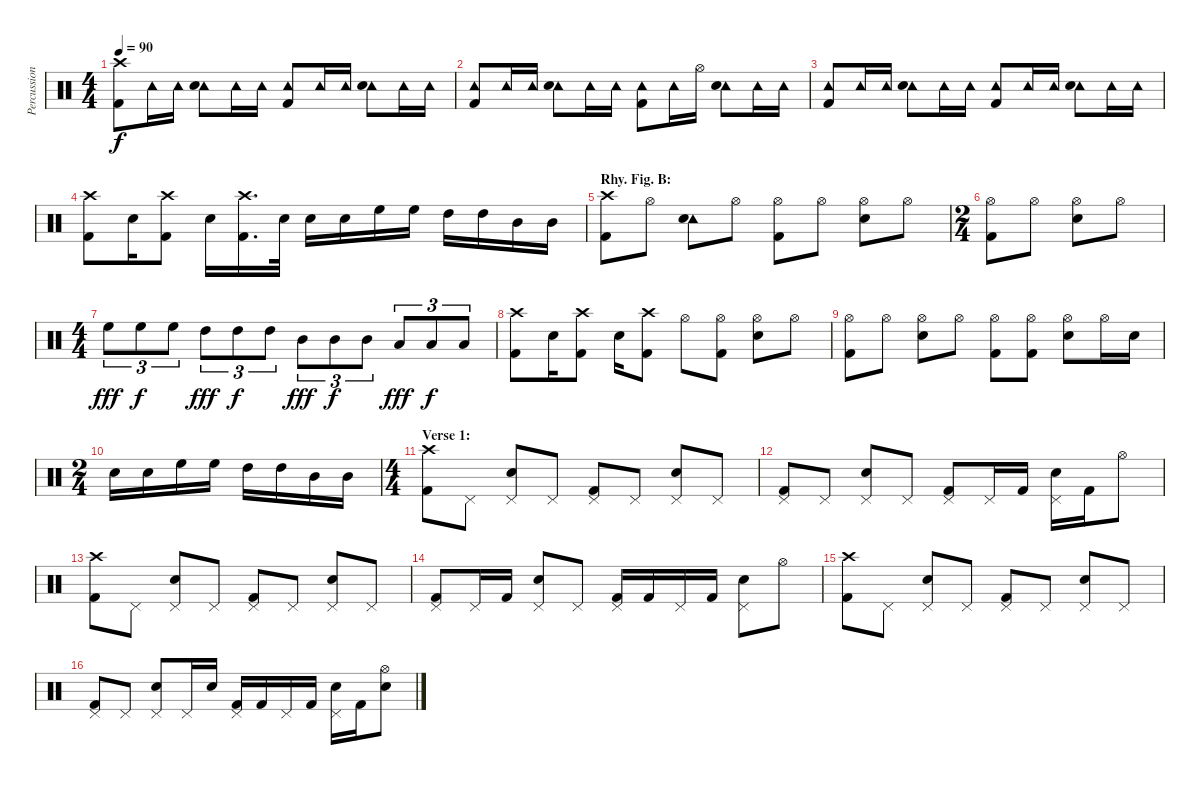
\track ("Percussion" "Percussion") {instrument percussion}
\staff {score}
\articulation defaults
\ts (4 4)
\tempo 90
\clef neutral
\ks c
("Crash high (hit)" "Kick (hit) 2").8{dy f} "Tambourine (hit)".16 "Tambourine (hit)".16 ("Tambourine (hit)" "Electric Snare (hit)").8 "Tambourine (hit)".16 "Tambourine (hit)".16 ("Tambourine (hit)" "Kick (hit) 2").8 "Tambourine (hit)".16 "Tambourine (hit)".16 ("Tambourine (hit)" "Electric Snare (hit)").8 "Tambourine (hit)".16 "Tambourine (hit)".16 |
("Tambourine (hit)" "Kick (hit) 2").8 "Tambourine (hit)".16 "Tambourine (hit)".16 ("Tambourine (hit)" "Electric Snare (hit)").8 "Tambourine (hit)".16 "Tambourine (hit)".16 ("Tambourine (hit)" "Kick (hit) 2").8 "Tambourine (hit)".16 "Hi-Hat (open)".16 ("Tambourine (hit)" "Electric Snare (hit)").8 "Tambourine (hit)".16 "Tambourine (hit)".16 |
("Tambourine (hit)" "Kick (hit) 2").8 "Tambourine (hit)".16 "Tambourine (hit)".16 ("Tambourine (hit)" "Electric Snare (hit)").8 "Tambourine (hit)".16 "Tambourine (hit)".16 ("Tambourine (hit)" "Kick (hit) 2").8 "Tambourine (hit)".16 "Tambourine (hit)".16 ("Tambourine (hit)" "Electric Snare (hit)").8 "Tambourine (hit)".16 "Tambourine (hit)".16 |
("Crash high (hit)" "Kick (hit) 2").8 "Electric Snare (hit)".16 ("Crash high (hit)" "Kick (hit) 2").8 "Electric Snare (hit)".16 ("Crash high (hit)" "Kick (hit) 2").16{d} "Electric Snare (hit)".32 "Electric Snare (hit)".16 "Electric Snare (hit)".16 "High Floor Tom (hit)".16 "High Floor Tom (hit)".16 "High Tom (hit)".16 "High Tom (hit)".16 "Mid Tom (hit)".16 "Mid Tom (hit)".16 |
\section ("" "Rhy. Fig. B:")
("Crash high (hit)" "Kick (hit) 2").8 "Hi-Hat (open)".8 ("Tambourine (hit)" "Electric Snare (hit)").8 "Hi-Hat (open)".8 ("Hi-Hat (open)" "Kick (hit) 2").8 "Hi-Hat (open)".8 ("Hi-Hat (open)" "Electric Snare (hit)").8 "Hi-Hat (open)".8 |
\ts (2 4)
("Hi-Hat (open)" "Kick (hit) 2").8 "Hi-Hat (open)".8 ("Hi-Hat (open)" "Electric Snare (hit)").8 "Hi-Hat (open)".8 |
\ts (4 4)
"High Floor Tom (hit)".8{tu (3 2) dy fff} "High Floor Tom (hit)".8{tu (3 2) dy f} "High Floor Tom (hit)".8{tu (3 2)} "High Tom (hit)".8{tu (3 2) dy fff} "High Tom (hit)".8{tu (3 2) dy f} "High Tom (hit)".8{tu (3 2)} "Mid Tom (hit)".8{tu (3 2) dy fff} "Mid Tom (hit)".8{tu (3 2) dy f} "Mid Tom (hit)".8{tu (3 2)} "Low Tom (hit)".8{tu (3 2) dy fff} "Low Tom (hit)".8{tu (3 2) dy f} "Low Tom (hit)".8{tu (3 2)} |
("Crash high (hit)" "Kick (hit) 2").8 "Electric Snare (hit)".16 ("Crash high (hit)" "Kick (hit) 2").8 "Electric Snare (hit)".16 ("Crash high (hit)" "Kick (hit) 2").8 "Hi-Hat (open)".8 ("Hi-Hat (open)" "Kick (hit) 2").8 ("Hi-Hat (open)" "Electric Snare (hit)").8 "Hi-Hat (open)".8 |
("Hi-Hat (open)" "Kick (hit) 2").8 "Hi-Hat (open)".8 ("Hi-Hat (open)" "Electric Snare (hit)").8 "Hi-Hat (open)".8 ("Hi-Hat (open)" "Kick (hit) 2").8 ("Hi-Hat (open)" "Kick (hit) 2").8 ("Hi-Hat (open)" "Electric Snare (hit)").8 "Hi-Hat (open)".16 "Electric Snare (hit)".16 |
\ts (2 4)
"Electric Snare (hit)".16 "Electric Snare (hit)".16 "High Floor Tom (hit)".16 "High Floor Tom (hit)".16 "High Tom (hit)".16 "High Tom (hit)".16 "Mid Tom (hit)".16 "Mid Tom (hit)".16 |
\ts (4 4)
\section ("" "Verse 1:")
("Crash high (hit)" "Kick (hit) 2").8 "Pedal Hi-Hat (hit)".8 ("Pedal Hi-Hat (hit)" "Electric Snare (hit)").8 "Pedal Hi-Hat (hit)".8 ("Pedal Hi-Hat (hit)" "Kick (hit) 2").8 "Pedal Hi-Hat (hit)".8 ("Pedal Hi-Hat (hit)" "Electric Snare (hit)").8 "Pedal Hi-Hat (hit)".8 |
("Pedal Hi-Hat (hit)" "Kick (hit) 2").8 "Pedal Hi-Hat (hit)".8 ("Pedal Hi-Hat (hit)" "Electric Snare (hit)").8 "Pedal Hi-Hat (hit)".8 ("Pedal Hi-Hat (hit)" "Kick (hit) 2").8 "Pedal Hi-Hat (hit)".16 "Kick (hit) 2".16 ("Pedal Hi-Hat (hit)" "Electric Snare (hit)").16 "Kick (hit) 2".16 "Hi-Hat (open)".8 |
("Crash high (hit)" "Kick (hit) 2").8 "Pedal Hi-Hat (hit)".8 ("Pedal Hi-Hat (hit)" "Electric Snare (hit)").8 "Pedal Hi-Hat (hit)".8 ("Pedal Hi-Hat (hit)" "Kick (hit) 2").8 "Pedal Hi-Hat (hit)".8 ("Pedal Hi-Hat (hit)" "Electric Snare (hit)").8 "Pedal Hi-Hat (hit)".8 |
("Pedal Hi-Hat (hit)" "Kick (hit) 2").8 "Pedal Hi-Hat (hit)".16 "Kick (hit) 2".16 ("Pedal Hi-Hat (hit)" "Electric Snare (hit)").8 "Pedal Hi-Hat (hit)".8 ("Pedal Hi-Hat (hit)" "Kick (hit) 2").16 "Kick (hit) 2".16 "Pedal Hi-Hat (hit)".16 "Kick (hit) 2".16 ("Pedal Hi-Hat (hit)" "Electric Snare (hit)").8 "Hi-Hat (open)".8 |
("Crash high (hit)" "Kick (hit) 2").8 "Pedal Hi-Hat (hit)".8 ("Pedal Hi-Hat (hit)" "Electric Snare (hit)").8 "Pedal Hi-Hat (hit)".8 ("Pedal Hi-Hat (hit)" "Kick (hit) 2").8 "Pedal Hi-Hat (hit)".8 ("Pedal Hi-Hat (hit)" "Electric Snare (hit)").8 "Pedal Hi-Hat (hit)".8 |
("Pedal Hi-Hat (hit)" "Kick (hit) 2").8 "Pedal Hi-Hat (hit)".8 ("Pedal Hi-Hat (hit)" "Electric Snare (hit)").8 "Pedal Hi-Hat (hit)".16 "Electric Snare (hit)".16 ("Pedal Hi-Hat (hit)" "Kick (hit) 2").16 "Kick (hit) 2".16 "Pedal Hi-Hat (hit)".16 "Kick (hit) 2".16 ("Pedal Hi-Hat (hit)" "Electric Snare (hit)").16 "Kick (hit) 2".16 ("Hi-Hat (open)" "Electric Snare (hit)").8
